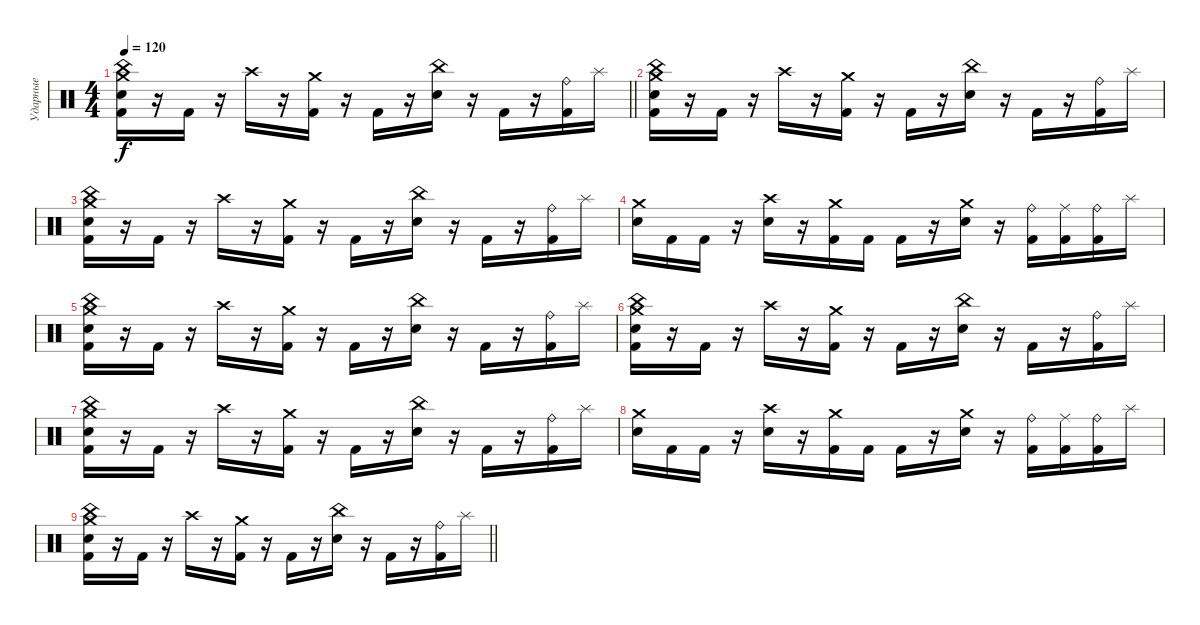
\track ("Ударные" "Ударные") {instrument percussion}
\staff {score}
\articulation defaults
\ts (4 4)
\tempo 120
\clef neutral
\barLineRight lightlight
\ks c
("Crash medium (hit)" "China (hit)" "Electric Snare (hit)" "Kick (hit) 2").16{dy f} r.16 "Kick (hit) 2".16 r.16 "Crash high (hit)".16 r.16 ("Crash medium (hit)" "Kick (hit) 2").16 r.16 "Kick (hit) 2".16 r.16 ("China (hit)" "Electric Snare (hit)").16 r.16 "Kick (hit) 2".16 r.16 ("Ride (bell)" "Kick (hit) 2").16 "Splash (hit)".16 |
("Crash medium (hit)" "China (hit)" "Electric Snare (hit)" "Kick (hit) 2").16 r.16 "Kick (hit) 2".16 r.16 "Crash high (hit)".16 r.16 ("Crash medium (hit)" "Kick (hit) 2").16 r.16 "Kick (hit) 2".16 r.16 ("China (hit)" "Electric Snare (hit)").16 r.16 "Kick (hit) 2".16 r.16 ("Ride (bell)" "Kick (hit) 2").16 "Splash (hit)".16 |
("Crash medium (hit)" "China (hit)" "Electric Snare (hit)" "Kick (hit) 2").16 r.16 "Kick (hit) 2".16 r.16 "Crash high (hit)".16 r.16 ("Crash medium (hit)" "Kick (hit) 2").16 r.16 "Kick (hit) 2".16 r.16 ("China (hit)" "Electric Snare (hit)").16 r.16 "Kick (hit) 2".16 r.16 ("Ride (bell)" "Kick (hit) 2").16 "Splash (hit)".16 |
("Crash medium (hit)" "Electric Snare (hit)").16 "Kick (hit) 2".16 "Kick (hit) 2".16 r.16 ("Crash high (hit)" "Electric Snare (hit)").16 r.16 ("Crash medium (hit)" "Kick (hit) 2").16 "Kick (hit) 2".16 "Kick (hit) 2".16 r.16 ("Crash medium (hit)" "Electric Snare (hit)").16 r.16 ("Ride (bell)" "Kick (hit) 2").16 ("Ride (middle)" "Kick (hit) 2").16 ("Ride (bell)" "Kick (hit) 2").16 "Splash (hit)".16 |
("Crash medium (hit)" "China (hit)" "Electric Snare (hit)" "Kick (hit) 2").16 r.16 "Kick (hit) 2".16 r.16 "Crash high (hit)".16 r.16 ("Crash medium (hit)" "Kick (hit) 2").16 r.16 "Kick (hit) 2".16 r.16 ("China (hit)" "Electric Snare (hit)").16 r.16 "Kick (hit) 2".16 r.16 ("Ride (bell)" "Kick (hit) 2").16 "Splash (hit)".16 |
("Crash medium (hit)" "China (hit)" "Electric Snare (hit)" "Kick (hit) 2").16 r.16 "Kick (hit) 2".16 r.16 "Crash high (hit)".16 r.16 ("Crash medium (hit)" "Kick (hit) 2").16 r.16 "Kick (hit) 2".16 r.16 ("China (hit)" "Electric Snare (hit)").16 r.16 "Kick (hit) 2".16 r.16 ("Ride (bell)" "Kick (hit) 2").16 "Splash (hit)".16 |
("Crash medium (hit)" "China (hit)" "Electric Snare (hit)" "Kick (hit) 2").16 r.16 "Kick (hit) 2".16 r.16 "Crash high (hit)".16 r.16 ("Crash medium (hit)" "Kick (hit) 2").16 r.16 "Kick (hit) 2".16 r.16 ("China (hit)" "Electric Snare (hit)").16 r.16 "Kick (hit) 2".16 r.16 ("Ride (bell)" "Kick (hit) 2").16 "Splash (hit)".16 |
("Crash medium (hit)" "Electric Snare (hit)").16 "Kick (hit) 2".16 "Kick (hit) 2".16 r.16 ("Crash high (hit)" "Electric Snare (hit)").16 r.16 ("Crash medium (hit)" "Kick (hit) 2").16 "Kick (hit) 2".16 "Kick (hit) 2".16 r.16 ("Crash medium (hit)" "Electric Snare (hit)").16 r.16 ("Ride (bell)" "Kick (hit) 2").16 ("Ride (middle)" "Kick (hit) 2").16 ("Ride (bell)" "Kick (hit) 2").16 "Splash (hit)".16 |
\barLineRight lightlight
("Crash medium (hit)" "China (hit)" "Electric Snare (hit)" "Kick (hit) 2").16 r.16 "Kick (hit) 2".16 r.16 "Crash high (hit)".16 r.16 ("Crash medium (hit)" "Kick (hit) 2").16 r.16 "Kick (hit) 2".16 r.16 ("China (hit)" "Electric Snare (hit)").16 r.16 "Kick (hit) 2".16 r.16 ("Ride (bell)" "Kick (hit) 2").16 "Splash (hit)".16
